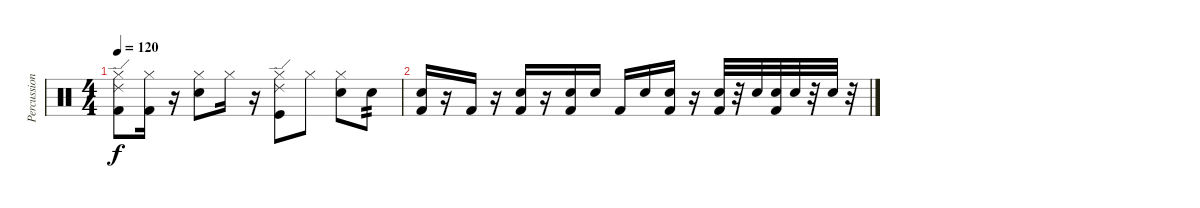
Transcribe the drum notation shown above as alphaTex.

\track ("Percussions" "Percussion") {instrument percussion}
\staff {score}
\articulation defaults
\ts (4 4)
\tempo 120
\clef neutral
\ks c
("Hi-Hat (closed)" "Ride (edge) 2" "Kick (hit) 2").8{dy f} ("Hi-Hat (closed)" "Kick (hit) 2").16 r.16 ("Hi-Hat (closed)" "Snare (hit) 2").8 "Hi-Hat (closed)".16 r.16 ("Hi-Hat (closed)" "Ride (edge) 2" "Kick (hit)").8 "Hi-Hat (closed)".8 ("Hi-Hat (closed)" "Snare (hit) 2").8 "Electric Snare (hit)".8{tp 2} |
("Electric Snare (hit)" "Kick (hit) 2").16 r.16 "Kick (hit) 2".16 r.16 ("Electric Snare (hit)" "Kick (hit) 2").16 r.16 ("Electric Snare (hit)" "Kick (hit) 2").16 "Electric Snare (hit)".16 "Kick (hit) 2".16 "Electric Snare (hit)".16 ("Electric Snare (hit)" "Kick (hit) 2").16 r.16 ("Electric Snare (hit)" "Kick (hit) 2").32 r.32 "Electric Snare (hit)".32 ("Electric Snare (hit)" "Kick (hit) 2").32 "Electric Snare (hit)".32 r.32 "Electric Snare (hit)".32 r.32
